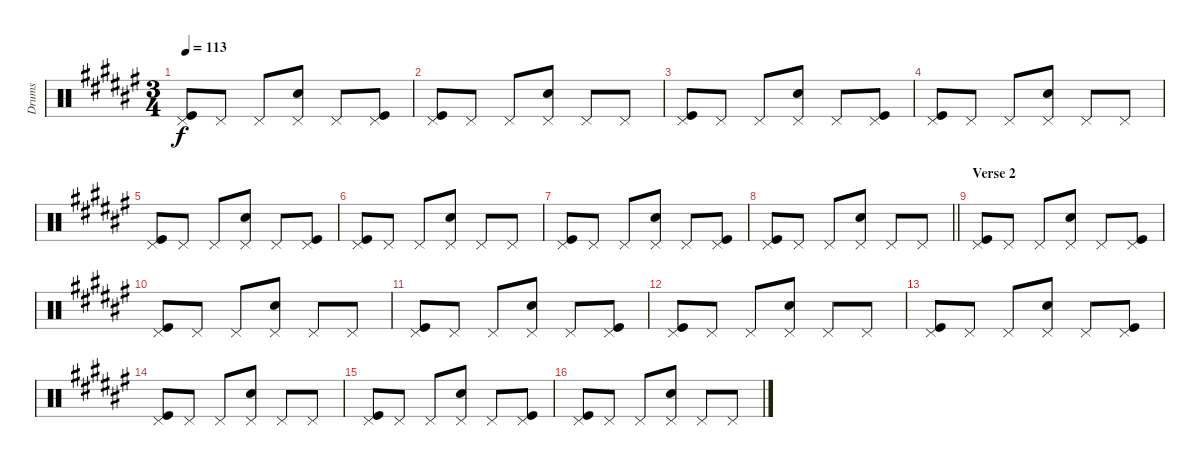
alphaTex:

\track ("Drums" "Drums") {instrument percussion}
\staff {score}
\articulation defaults
\ts (3 4)
\tempo 113
\clef neutral
\ks f#
("Pedal Hi-Hat (hit)" "Kick (hit)").8{dy f} "Pedal Hi-Hat (hit)".8 "Pedal Hi-Hat (hit)".8 ("Pedal Hi-Hat (hit)" "Snare (hit) 2").8 "Pedal Hi-Hat (hit)".8 ("Pedal Hi-Hat (hit)" "Kick (hit)").8 |
("Pedal Hi-Hat (hit)" "Kick (hit)").8 "Pedal Hi-Hat (hit)".8 "Pedal Hi-Hat (hit)".8 ("Pedal Hi-Hat (hit)" "Snare (hit) 2").8 "Pedal Hi-Hat (hit)".8 "Pedal Hi-Hat (hit)".8 |
("Pedal Hi-Hat (hit)" "Kick (hit)").8 "Pedal Hi-Hat (hit)".8 "Pedal Hi-Hat (hit)".8 ("Pedal Hi-Hat (hit)" "Snare (hit) 2").8 "Pedal Hi-Hat (hit)".8 ("Pedal Hi-Hat (hit)" "Kick (hit)").8 |
("Pedal Hi-Hat (hit)" "Kick (hit)").8 "Pedal Hi-Hat (hit)".8 "Pedal Hi-Hat (hit)".8 ("Pedal Hi-Hat (hit)" "Snare (hit) 2").8 "Pedal Hi-Hat (hit)".8 "Pedal Hi-Hat (hit)".8 |
("Pedal Hi-Hat (hit)" "Kick (hit)").8 "Pedal Hi-Hat (hit)".8 "Pedal Hi-Hat (hit)".8 ("Pedal Hi-Hat (hit)" "Snare (hit) 2").8 "Pedal Hi-Hat (hit)".8 ("Pedal Hi-Hat (hit)" "Kick (hit)").8 |
("Pedal Hi-Hat (hit)" "Kick (hit)").8 "Pedal Hi-Hat (hit)".8 "Pedal Hi-Hat (hit)".8 ("Pedal Hi-Hat (hit)" "Snare (hit) 2").8 "Pedal Hi-Hat (hit)".8 "Pedal Hi-Hat (hit)".8 |
("Pedal Hi-Hat (hit)" "Kick (hit)").8 "Pedal Hi-Hat (hit)".8 "Pedal Hi-Hat (hit)".8 ("Pedal Hi-Hat (hit)" "Snare (hit) 2").8 "Pedal Hi-Hat (hit)".8 ("Pedal Hi-Hat (hit)" "Kick (hit)").8 |
\barLineRight lightlight
("Pedal Hi-Hat (hit)" "Kick (hit)").8 "Pedal Hi-Hat (hit)".8 "Pedal Hi-Hat (hit)".8 ("Pedal Hi-Hat (hit)" "Snare (hit) 2").8 "Pedal Hi-Hat (hit)".8 "Pedal Hi-Hat (hit)".8 |
\section ("" "Verse 2")
("Pedal Hi-Hat (hit)" "Kick (hit)").8 "Pedal Hi-Hat (hit)".8 "Pedal Hi-Hat (hit)".8 ("Pedal Hi-Hat (hit)" "Snare (hit) 2").8 "Pedal Hi-Hat (hit)".8 ("Pedal Hi-Hat (hit)" "Kick (hit)").8 |
("Pedal Hi-Hat (hit)" "Kick (hit)").8 "Pedal Hi-Hat (hit)".8 "Pedal Hi-Hat (hit)".8 ("Pedal Hi-Hat (hit)" "Snare (hit) 2").8 "Pedal Hi-Hat (hit)".8 "Pedal Hi-Hat (hit)".8 |
("Pedal Hi-Hat (hit)" "Kick (hit)").8 "Pedal Hi-Hat (hit)".8 "Pedal Hi-Hat (hit)".8 ("Pedal Hi-Hat (hit)" "Snare (hit) 2").8 "Pedal Hi-Hat (hit)".8 ("Pedal Hi-Hat (hit)" "Kick (hit)").8 |
("Pedal Hi-Hat (hit)" "Kick (hit)").8 "Pedal Hi-Hat (hit)".8 "Pedal Hi-Hat (hit)".8 ("Pedal Hi-Hat (hit)" "Snare (hit) 2").8 "Pedal Hi-Hat (hit)".8 "Pedal Hi-Hat (hit)".8 |
("Pedal Hi-Hat (hit)" "Kick (hit)").8 "Pedal Hi-Hat (hit)".8 "Pedal Hi-Hat (hit)".8 ("Pedal Hi-Hat (hit)" "Snare (hit) 2").8 "Pedal Hi-Hat (hit)".8 ("Pedal Hi-Hat (hit)" "Kick (hit)").8 |
("Pedal Hi-Hat (hit)" "Kick (hit)").8 "Pedal Hi-Hat (hit)".8 "Pedal Hi-Hat (hit)".8 ("Pedal Hi-Hat (hit)" "Snare (hit) 2").8 "Pedal Hi-Hat (hit)".8 "Pedal Hi-Hat (hit)".8 |
("Pedal Hi-Hat (hit)" "Kick (hit)").8 "Pedal Hi-Hat (hit)".8 "Pedal Hi-Hat (hit)".8 ("Pedal Hi-Hat (hit)" "Snare (hit) 2").8 "Pedal Hi-Hat (hit)".8 ("Pedal Hi-Hat (hit)" "Kick (hit)").8 |
("Pedal Hi-Hat (hit)" "Kick (hit)").8 "Pedal Hi-Hat (hit)".8 "Pedal Hi-Hat (hit)".8 ("Pedal Hi-Hat (hit)" "Snare (hit) 2").8 "Pedal Hi-Hat (hit)".8 "Pedal Hi-Hat (hit)".8
